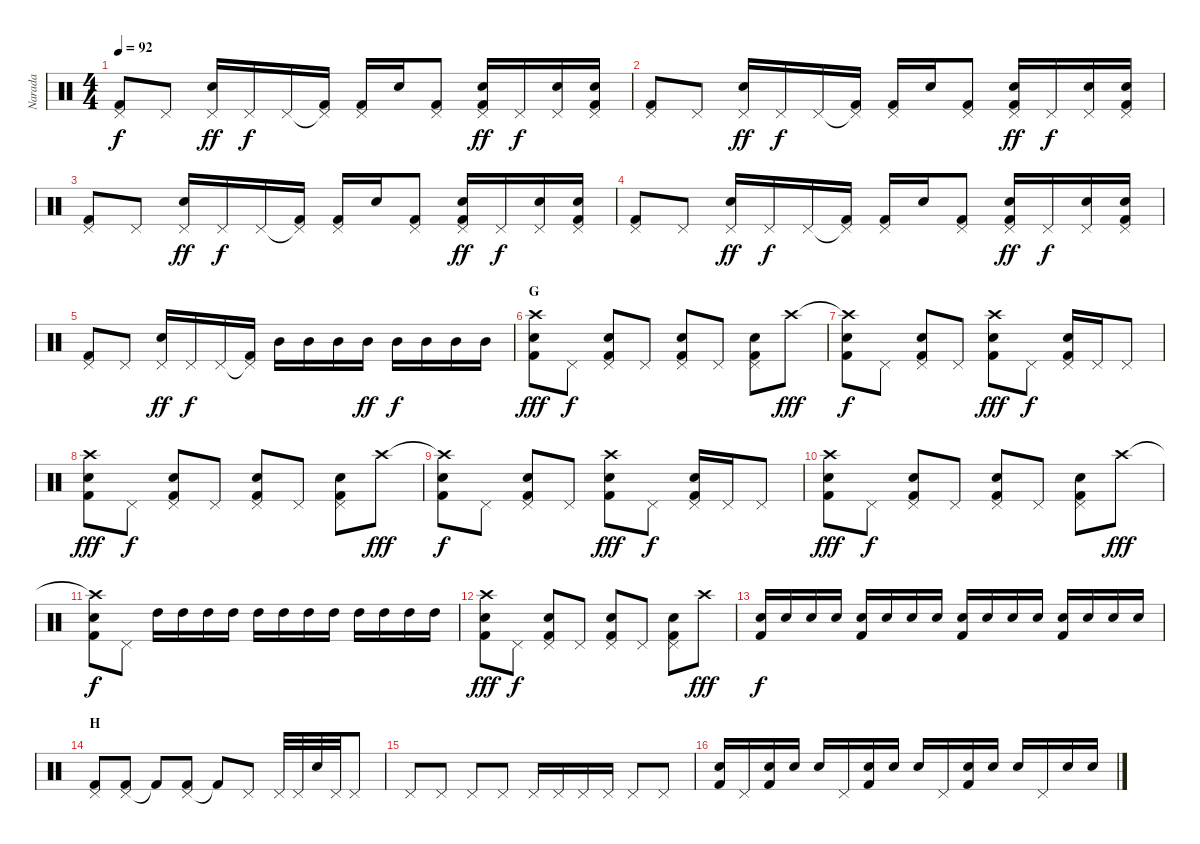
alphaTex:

\track ("Narada" "Narada") {instrument percussion}
\staff {score}
\articulation defaults
\ts (4 4)
\tempo 92
\clef neutral
\ks c
("Pedal Hi-Hat (hit)" "Kick (hit) 2").8{dy f} "Pedal Hi-Hat (hit)".8 ("Pedal Hi-Hat (hit)" "Snare (hit) 2").16{dy ff} "Pedal Hi-Hat (hit)".16{dy f} "Pedal Hi-Hat (hit)".16 ("Pedal Hi-Hat (hit)"{t} "Kick (hit) 2").16 ("Pedal Hi-Hat (hit)" "Kick (hit) 2").16 "Snare (hit) 2".16 ("Pedal Hi-Hat (hit)" "Kick (hit) 2").8 ("Pedal Hi-Hat (hit)" "Snare (hit) 2" "Kick (hit) 2").16{dy ff} "Pedal Hi-Hat (hit)".16{dy f} ("Pedal Hi-Hat (hit)" "Snare (hit) 2").16 ("Pedal Hi-Hat (hit)" "Snare (hit) 2" "Kick (hit) 2").16 |
("Pedal Hi-Hat (hit)" "Kick (hit) 2").8 "Pedal Hi-Hat (hit)".8 ("Pedal Hi-Hat (hit)" "Snare (hit) 2").16{dy ff} "Pedal Hi-Hat (hit)".16{dy f} "Pedal Hi-Hat (hit)".16 ("Pedal Hi-Hat (hit)"{t} "Kick (hit) 2").16 ("Pedal Hi-Hat (hit)" "Kick (hit) 2").16 "Snare (hit) 2".16 ("Pedal Hi-Hat (hit)" "Kick (hit) 2").8 ("Pedal Hi-Hat (hit)" "Snare (hit) 2" "Kick (hit) 2").16{dy ff} "Pedal Hi-Hat (hit)".16{dy f} ("Pedal Hi-Hat (hit)" "Snare (hit) 2").16 ("Pedal Hi-Hat (hit)" "Snare (hit) 2" "Kick (hit) 2").16 |
("Pedal Hi-Hat (hit)" "Kick (hit) 2").8 "Pedal Hi-Hat (hit)".8 ("Pedal Hi-Hat (hit)" "Snare (hit) 2").16{dy ff} "Pedal Hi-Hat (hit)".16{dy f} "Pedal Hi-Hat (hit)".16 ("Pedal Hi-Hat (hit)"{t} "Kick (hit) 2").16 ("Pedal Hi-Hat (hit)" "Kick (hit) 2").16 "Snare (hit) 2".16 ("Pedal Hi-Hat (hit)" "Kick (hit) 2").8 ("Pedal Hi-Hat (hit)" "Snare (hit) 2" "Kick (hit) 2").16{dy ff} "Pedal Hi-Hat (hit)".16{dy f} ("Pedal Hi-Hat (hit)" "Snare (hit) 2").16 ("Pedal Hi-Hat (hit)" "Snare (hit) 2" "Kick (hit) 2").16 |
("Pedal Hi-Hat (hit)" "Kick (hit) 2").8 "Pedal Hi-Hat (hit)".8 ("Pedal Hi-Hat (hit)" "Snare (hit) 2").16{dy ff} "Pedal Hi-Hat (hit)".16{dy f} "Pedal Hi-Hat (hit)".16 ("Pedal Hi-Hat (hit)"{t} "Kick (hit) 2").16 ("Pedal Hi-Hat (hit)" "Kick (hit) 2").16 "Snare (hit) 2".16 ("Pedal Hi-Hat (hit)" "Kick (hit) 2").8 ("Pedal Hi-Hat (hit)" "Snare (hit) 2" "Kick (hit) 2").16{dy ff} "Pedal Hi-Hat (hit)".16{dy f} ("Pedal Hi-Hat (hit)" "Snare (hit) 2").16 ("Pedal Hi-Hat (hit)" "Snare (hit) 2" "Kick (hit) 2").16 |
("Pedal Hi-Hat (hit)" "Kick (hit) 2").8 "Pedal Hi-Hat (hit)".8 ("Pedal Hi-Hat (hit)" "Snare (hit) 2").16{dy ff} "Pedal Hi-Hat (hit)".16{dy f} "Pedal Hi-Hat (hit)".16 ("Pedal Hi-Hat (hit)"{t} "Kick (hit) 2").16 "Mid Tom (hit)".16 "Mid Tom (hit)".16 "Mid Tom (hit)".16 "Mid Tom (hit)".16{dy ff} "Mid Tom (hit)".16{dy f} "Mid Tom (hit)".16 "Mid Tom (hit)".16 "Mid Tom (hit)".16 |
\section ("" "G")
("Crash high (hit)" "Snare (hit) 2" "Kick (hit) 2").8{dy fff} "Pedal Hi-Hat (hit)".8{dy f} ("Pedal Hi-Hat (hit)" "Snare (hit) 2" "Kick (hit) 2").8 "Pedal Hi-Hat (hit)".8 ("Pedal Hi-Hat (hit)" "Snare (hit) 2" "Kick (hit) 2").8 "Pedal Hi-Hat (hit)".8 ("Pedal Hi-Hat (hit)" "Snare (hit) 2" "Kick (hit) 2").8 "Crash high (hit)".8{dy fff} |
("Crash high (hit)"{t} "Snare (hit) 2" "Kick (hit) 2").8{dy f} "Pedal Hi-Hat (hit)".8 ("Pedal Hi-Hat (hit)" "Snare (hit) 2" "Kick (hit) 2").8 "Pedal Hi-Hat (hit)".8 ("Crash high (hit)" "Snare (hit) 2" "Kick (hit) 2").8{dy fff} "Pedal Hi-Hat (hit)".8{dy f} ("Pedal Hi-Hat (hit)" "Snare (hit) 2" "Kick (hit) 2").16 "Pedal Hi-Hat (hit)".16 "Pedal Hi-Hat (hit)".8 |
("Crash high (hit)" "Snare (hit) 2" "Kick (hit) 2").8{dy fff} "Pedal Hi-Hat (hit)".8{dy f} ("Pedal Hi-Hat (hit)" "Snare (hit) 2" "Kick (hit) 2").8 "Pedal Hi-Hat (hit)".8 ("Pedal Hi-Hat (hit)" "Snare (hit) 2" "Kick (hit) 2").8 "Pedal Hi-Hat (hit)".8 ("Pedal Hi-Hat (hit)" "Snare (hit) 2" "Kick (hit) 2").8 "Crash high (hit)".8{dy fff} |
("Crash high (hit)"{t} "Snare (hit) 2" "Kick (hit) 2").8{dy f} "Pedal Hi-Hat (hit)".8 ("Pedal Hi-Hat (hit)" "Snare (hit) 2" "Kick (hit) 2").8 "Pedal Hi-Hat (hit)".8 ("Crash high (hit)" "Snare (hit) 2" "Kick (hit) 2").8{dy fff} "Pedal Hi-Hat (hit)".8{dy f} ("Pedal Hi-Hat (hit)" "Snare (hit) 2" "Kick (hit) 2").16 "Pedal Hi-Hat (hit)".16 "Pedal Hi-Hat (hit)".8 |
("Crash high (hit)" "Snare (hit) 2" "Kick (hit) 2").8{dy fff} "Pedal Hi-Hat (hit)".8{dy f} ("Pedal Hi-Hat (hit)" "Snare (hit) 2" "Kick (hit) 2").8 "Pedal Hi-Hat (hit)".8 ("Pedal Hi-Hat (hit)" "Snare (hit) 2" "Kick (hit) 2").8 "Pedal Hi-Hat (hit)".8 ("Pedal Hi-Hat (hit)" "Snare (hit) 2" "Kick (hit) 2").8 "Crash high (hit)".8{dy fff} |
("Crash high (hit)"{t} "Snare (hit) 2" "Kick (hit) 2").8{dy f} "Pedal Hi-Hat (hit)".8 "High Tom (hit)".16 "High Tom (hit)".16 "High Tom (hit)".16 "High Tom (hit)".16 "High Tom (hit)".16 "High Tom (hit)".16 "High Tom (hit)".16 "High Tom (hit)".16 "High Tom (hit)".16 "High Tom (hit)".16 "High Tom (hit)".16 "High Tom (hit)".16 |
("Crash high (hit)" "Snare (hit) 2" "Kick (hit) 2").8{dy fff} "Pedal Hi-Hat (hit)".8{dy f} ("Pedal Hi-Hat (hit)" "Snare (hit) 2" "Kick (hit) 2").8 "Pedal Hi-Hat (hit)".8 ("Pedal Hi-Hat (hit)" "Snare (hit) 2" "Kick (hit) 2").8 "Pedal Hi-Hat (hit)".8 ("Pedal Hi-Hat (hit)" "Snare (hit) 2" "Kick (hit) 2").8 "Crash high (hit)".8{dy fff} |
("Snare (hit) 2" "Kick (hit) 2").16{dy f} "Snare (hit) 2".16 "Snare (hit) 2".16 "Snare (hit) 2".16 ("Snare (hit) 2" "Kick (hit) 2").16 "Snare (hit) 2".16 "Snare (hit) 2".16 "Snare (hit) 2".16 ("Snare (hit) 2" "Kick (hit) 2").16 "Snare (hit) 2".16 "Snare (hit) 2".16 "Snare (hit) 2".16 ("Snare (hit) 2" "Kick (hit) 2").16 "Snare (hit) 2".16 "Snare (hit) 2".16 "Snare (hit) 2".16 |
\section ("" "H")
("Pedal Hi-Hat (hit)" "Kick (hit) 2").8 ("Pedal Hi-Hat (hit)" "Kick (hit) 2").8 "Kick (hit) 2"{t}.8 ("Pedal Hi-Hat (hit)" "Kick (hit) 2").8 "Kick (hit) 2"{t}.8 "Pedal Hi-Hat (hit)".8 "Pedal Hi-Hat (hit)".32 "Pedal Hi-Hat (hit)".32 "Snare (hit)".32 "Pedal Hi-Hat (hit)".32 "Pedal Hi-Hat (hit)".8 |
"Pedal Hi-Hat (hit)".8 "Pedal Hi-Hat (hit)".8 "Pedal Hi-Hat (hit)".8 "Pedal Hi-Hat (hit)".8 "Pedal Hi-Hat (hit)".16 "Pedal Hi-Hat (hit)".16 "Pedal Hi-Hat (hit)".16 "Pedal Hi-Hat (hit)".16 "Pedal Hi-Hat (hit)".8 "Pedal Hi-Hat (hit)".8 |
("Snare (hit) 2" "Kick (hit) 2").16 "Pedal Hi-Hat (hit)".16 ("Snare (hit) 2" "Kick (hit) 2").16 "Snare (hit) 2".16 "Snare (hit) 2".16 "Pedal Hi-Hat (hit)".16 ("Snare (hit) 2" "Kick (hit) 2").16 "Snare (hit) 2".16 "Snare (hit) 2".16 "Pedal Hi-Hat (hit)".16 ("Snare (hit) 2" "Kick (hit) 2").16 "Snare (hit) 2".16 "Snare (hit) 2".16 "Pedal Hi-Hat (hit)".16 "Snare (hit) 2".16 "Snare (hit) 2".16
